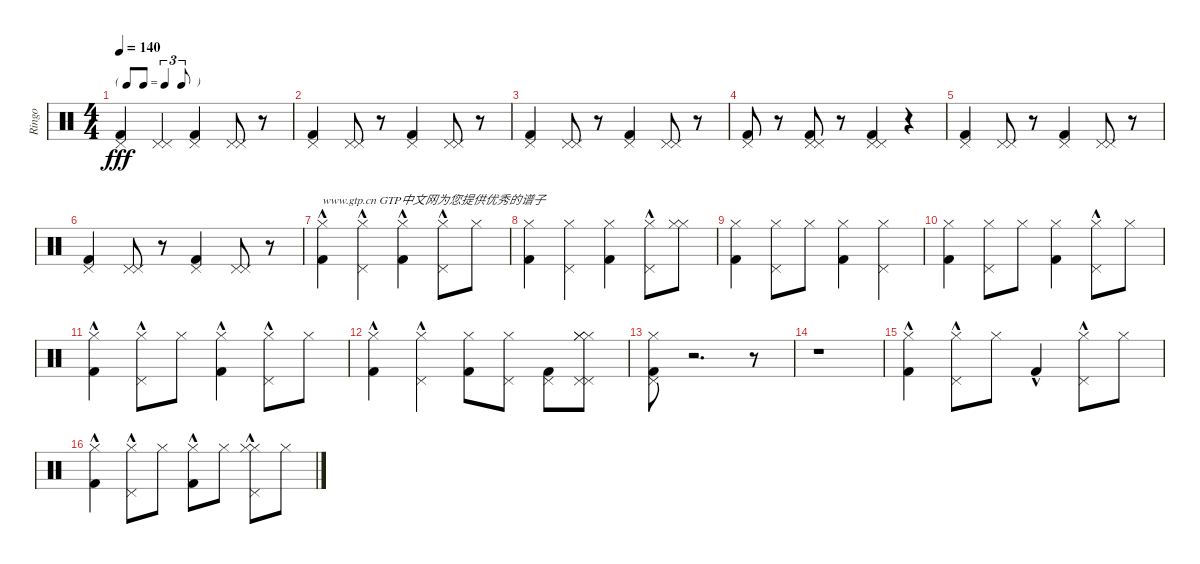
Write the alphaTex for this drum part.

\track ("Ringo" "Ringo") {instrument percussion}
\staff {score}
\articulation defaults
\ts (4 4)
\tf triplet8th
\tempo 140
\clef neutral
\ks c
("Kick (hit) 2" "Pedal Hi-Hat (hit)").4{dy fff} ("Pedal Hi-Hat (hit)" "Pedal Hi-Hat (hit)").4 ("Kick (hit) 2" "Pedal Hi-Hat (hit)").4 ("Pedal Hi-Hat (hit)" "Pedal Hi-Hat (hit)").8 r.8 |
("Kick (hit) 2" "Pedal Hi-Hat (hit)").4 ("Pedal Hi-Hat (hit)" "Pedal Hi-Hat (hit)").8 r.8 ("Kick (hit) 2" "Pedal Hi-Hat (hit)").4 ("Pedal Hi-Hat (hit)" "Pedal Hi-Hat (hit)").8 r.8 |
("Kick (hit) 2" "Pedal Hi-Hat (hit)").4 ("Pedal Hi-Hat (hit)" "Pedal Hi-Hat (hit)").8 r.8 ("Kick (hit) 2" "Pedal Hi-Hat (hit)").4 ("Pedal Hi-Hat (hit)" "Pedal Hi-Hat (hit)").8 r.8 |
("Kick (hit) 2" "Pedal Hi-Hat (hit)").8 r.8 ("Kick (hit) 2" "Pedal Hi-Hat (hit)" "Pedal Hi-Hat (hit)").8 r.8 ("Kick (hit) 2" "Pedal Hi-Hat (hit)" "Pedal Hi-Hat (hit)").4 r.4 |
("Kick (hit) 2" "Pedal Hi-Hat (hit)").4 ("Pedal Hi-Hat (hit)" "Pedal Hi-Hat (hit)").8 r.8 ("Kick (hit) 2" "Pedal Hi-Hat (hit)").4 ("Pedal Hi-Hat (hit)" "Pedal Hi-Hat (hit)").8 r.8 |
("Kick (hit) 2" "Pedal Hi-Hat (hit)").4 ("Pedal Hi-Hat (hit)" "Pedal Hi-Hat (hit)").8 r.8 ("Kick (hit) 2" "Pedal Hi-Hat (hit)").4 ("Pedal Hi-Hat (hit)" "Pedal Hi-Hat (hit)").8 r.8 |
("Kick (hit) 2"{hac} "Hi-Hat (closed)").4{txt "www.gtp.cn GTP中文网为您提供优秀的谱子"} ("Hi-Hat (closed)" "Pedal Hi-Hat (hit)"{hac}).4 ("Kick (hit) 2"{hac} "Hi-Hat (closed)").4 ("Hi-Hat (closed)" "Pedal Hi-Hat (hit)"{hac}).8 "Hi-Hat (closed)".8 |
("Kick (hit) 2" "Hi-Hat (closed)").4 ("Hi-Hat (closed)" "Pedal Hi-Hat (hit)").4 ("Kick (hit) 2" "Hi-Hat (closed)").4 ("Hi-Hat (closed)" "Pedal Hi-Hat (hit)"{hac}).8 ("Hi-Hat (closed)" "Hi-Hat (closed)").8 |
("Kick (hit) 2" "Hi-Hat (closed)").4 ("Hi-Hat (closed)" "Pedal Hi-Hat (hit)").8 "Hi-Hat (closed)".8 ("Kick (hit) 2" "Hi-Hat (closed)").4 ("Hi-Hat (closed)" "Pedal Hi-Hat (hit)").4 |
("Kick (hit) 2" "Hi-Hat (closed)").4 ("Hi-Hat (closed)" "Pedal Hi-Hat (hit)").8 "Hi-Hat (closed)".8 ("Kick (hit) 2" "Hi-Hat (closed)").4 ("Hi-Hat (closed)" "Pedal Hi-Hat (hit)"{hac}).8 "Hi-Hat (closed)".8 |
("Kick (hit) 2"{hac} "Hi-Hat (closed)").4 ("Hi-Hat (closed)" "Pedal Hi-Hat (hit)"{hac}).8 "Hi-Hat (closed)".8 ("Kick (hit) 2"{hac} "Hi-Hat (closed)").4 ("Hi-Hat (closed)" "Pedal Hi-Hat (hit)"{hac}).8 "Hi-Hat (closed)".8 |
("Kick (hit) 2"{hac} "Hi-Hat (closed)").4 ("Hi-Hat (closed)" "Pedal Hi-Hat (hit)"{hac}).4 ("Kick (hit) 2" "Hi-Hat (closed)").8 ("Hi-Hat (closed)" "Pedal Hi-Hat (hit)").8 ("Kick (hit) 2" "Pedal Hi-Hat (hit)").8 ("Hi-Hat (closed)" "Pedal Hi-Hat (hit)" "Hi-Hat (closed)" "Hi-Hat (closed)" "Pedal Hi-Hat (hit)").8 |
("Kick (hit) 2" "Hi-Hat (closed)" "Pedal Hi-Hat (hit)").8 r.2{d} r.8 |
r.1 |
("Kick (hit) 2"{hac} "Hi-Hat (closed)").4 ("Hi-Hat (closed)" "Pedal Hi-Hat (hit)"{hac}).8 "Hi-Hat (closed)".8 "Kick (hit) 2"{hac}.4 ("Hi-Hat (closed)" "Pedal Hi-Hat (hit)"{hac}).8 "Hi-Hat (closed)".8 |
("Kick (hit) 2"{hac} "Hi-Hat (closed)").4 ("Hi-Hat (closed)" "Pedal Hi-Hat (hit)"{hac}).8 "Hi-Hat (closed)".8 ("Kick (hit) 2"{hac} "Hi-Hat (closed)").8 "Hi-Hat (closed)".8 ("Hi-Hat (closed)" "Hi-Hat (closed)" "Pedal Hi-Hat (hit)"{hac}).8 "Hi-Hat (closed)".8
